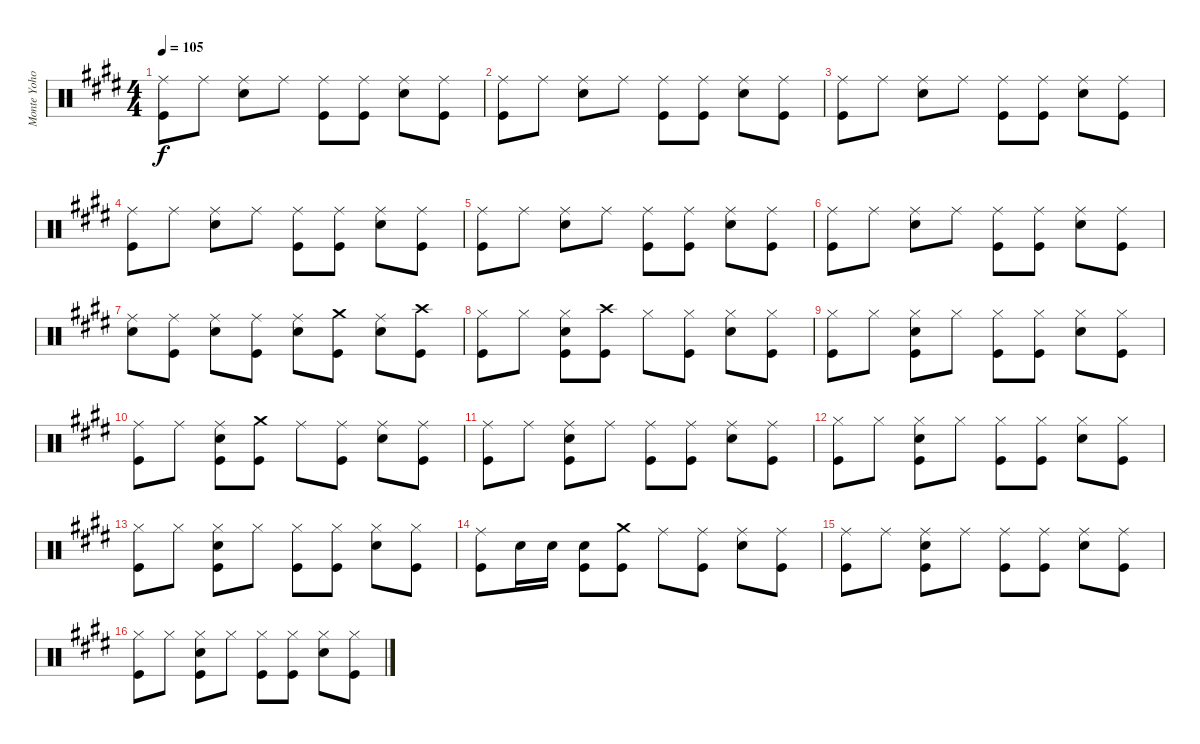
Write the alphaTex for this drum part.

\track ("Monte Yoho" "Monte Yoho") {instrument percussion}
\staff {score}
\articulation defaults
\ts (4 4)
\tempo 105
\clef neutral
\ks e
("Ride (middle)" "Kick (hit)").8{dy f} "Ride (middle)".8 ("Ride (middle)" "Snare (hit) 2").8 "Ride (middle)".8 ("Ride (middle)" "Kick (hit)").8 ("Ride (middle)" "Kick (hit)").8 ("Ride (middle)" "Snare (hit) 2").8 ("Ride (middle)" "Kick (hit)").8 |
("Ride (middle)" "Kick (hit)").8 "Ride (middle)".8 ("Ride (middle)" "Snare (hit) 2").8 "Ride (middle)".8 ("Ride (middle)" "Kick (hit)").8 ("Ride (middle)" "Kick (hit)").8 ("Ride (middle)" "Snare (hit) 2").8 ("Ride (middle)" "Kick (hit)").8 |
("Ride (middle)" "Kick (hit)").8 "Ride (middle)".8 ("Ride (middle)" "Snare (hit) 2").8 "Ride (middle)".8 ("Ride (middle)" "Kick (hit)").8 ("Ride (middle)" "Kick (hit)").8 ("Ride (middle)" "Snare (hit) 2").8 ("Ride (middle)" "Kick (hit)").8 |
("Ride (middle)" "Kick (hit)").8 "Ride (middle)".8 ("Ride (middle)" "Snare (hit) 2").8 "Ride (middle)".8 ("Ride (middle)" "Kick (hit)").8 ("Ride (middle)" "Kick (hit)").8 ("Ride (middle)" "Snare (hit) 2").8 ("Ride (middle)" "Kick (hit)").8 |
("Ride (middle)" "Kick (hit)").8 "Ride (middle)".8 ("Ride (middle)" "Snare (hit) 2").8 "Ride (middle)".8 ("Ride (middle)" "Kick (hit)").8 ("Ride (middle)" "Kick (hit)").8 ("Ride (middle)" "Snare (hit) 2").8 ("Ride (middle)" "Kick (hit)").8 |
("Ride (middle)" "Kick (hit)").8 "Ride (middle)".8 ("Ride (middle)" "Snare (hit) 2").8 "Ride (middle)".8 ("Ride (middle)" "Kick (hit)").8 ("Ride (middle)" "Kick (hit)").8 ("Ride (middle)" "Snare (hit) 2").8 ("Ride (middle)" "Kick (hit)").8 |
("Ride (middle)" "Snare (hit) 2").8 ("Ride (middle)" "Kick (hit)").8 ("Ride (middle)" "Snare (hit) 2").8 ("Ride (middle)" "Kick (hit)").8 ("Ride (middle)" "Snare (hit) 2").8 ("Crash medium (hit)" "Kick (hit)").8 ("Ride (middle)" "Snare (hit) 2").8 ("Crash high (hit)" "Kick (hit)").8 |
("Hi-Hat (closed)" "Kick (hit)").8 "Hi-Hat (closed)".8 ("Hi-Hat (closed)" "Snare (hit) 2" "Kick (hit)").8 ("Crash high (hit)" "Kick (hit)").8 "Hi-Hat (closed)".8 ("Hi-Hat (closed)" "Kick (hit)").8 ("Hi-Hat (closed)" "Snare (hit) 2").8 ("Hi-Hat (closed)" "Kick (hit)").8 |
("Hi-Hat (closed)" "Kick (hit)").8 "Hi-Hat (closed)".8 ("Hi-Hat (closed)" "Snare (hit) 2" "Kick (hit)").8 "Hi-Hat (closed)".8 ("Hi-Hat (closed)" "Kick (hit)").8 ("Hi-Hat (closed)" "Kick (hit)").8 ("Hi-Hat (closed)" "Snare (hit) 2").8 ("Hi-Hat (closed)" "Kick (hit)").8 |
("Ride (middle)" "Kick (hit)").8 "Ride (middle)".8 ("Ride (middle)" "Snare (hit) 2" "Kick (hit)").8 ("Crash medium (hit)" "Kick (hit)").8 "Ride (middle)".8 ("Ride (middle)" "Kick (hit)").8 ("Ride (middle)" "Snare (hit) 2").8 ("Ride (middle)" "Kick (hit)").8 |
("Ride (middle)" "Kick (hit)").8 "Ride (middle)".8 ("Ride (middle)" "Snare (hit) 2" "Kick (hit)").8 "Ride (middle)".8 ("Ride (middle)" "Kick (hit)").8 ("Ride (middle)" "Kick (hit)").8 ("Ride (middle)" "Snare (hit) 2").8 ("Ride (middle)" "Kick (hit)").8 |
("Hi-Hat (closed)" "Kick (hit)").8 "Hi-Hat (closed)".8 ("Hi-Hat (closed)" "Snare (hit) 2" "Kick (hit)").8 "Hi-Hat (closed)".8 ("Hi-Hat (closed)" "Kick (hit)").8 ("Hi-Hat (closed)" "Kick (hit)").8 ("Hi-Hat (closed)" "Snare (hit) 2").8 ("Hi-Hat (closed)" "Kick (hit)").8 |
("Hi-Hat (closed)" "Kick (hit)").8 "Hi-Hat (closed)".8 ("Hi-Hat (closed)" "Snare (hit) 2" "Kick (hit)").8 "Hi-Hat (closed)".8 ("Hi-Hat (closed)" "Kick (hit)").8 ("Hi-Hat (closed)" "Kick (hit)").8 ("Hi-Hat (closed)" "Snare (hit) 2").8 ("Hi-Hat (closed)" "Kick (hit)").8 |
("Ride (middle)" "Kick (hit)").8 "Snare (hit) 2".16 "Snare (hit) 2".16 ("Snare (hit) 2" "Kick (hit)").8 ("Crash medium (hit)" "Kick (hit)").8 "Ride (middle)".8 ("Ride (middle)" "Kick (hit)").8 ("Ride (middle)" "Snare (hit) 2").8 ("Ride (middle)" "Kick (hit)").8 |
("Ride (middle)" "Kick (hit)").8 "Ride (middle)".8 ("Ride (middle)" "Snare (hit) 2" "Kick (hit)").8 "Ride (middle)".8 ("Ride (middle)" "Kick (hit)").8 ("Ride (middle)" "Kick (hit)").8 ("Ride (middle)" "Snare (hit) 2").8 ("Ride (middle)" "Kick (hit)").8 |
("Hi-Hat (closed)" "Kick (hit)").8 "Hi-Hat (closed)".8 ("Hi-Hat (closed)" "Snare (hit) 2" "Kick (hit)").8 "Hi-Hat (closed)".8 ("Hi-Hat (closed)" "Kick (hit)").8 ("Hi-Hat (closed)" "Kick (hit)").8 ("Hi-Hat (closed)" "Snare (hit) 2").8 ("Hi-Hat (closed)" "Kick (hit)").8
